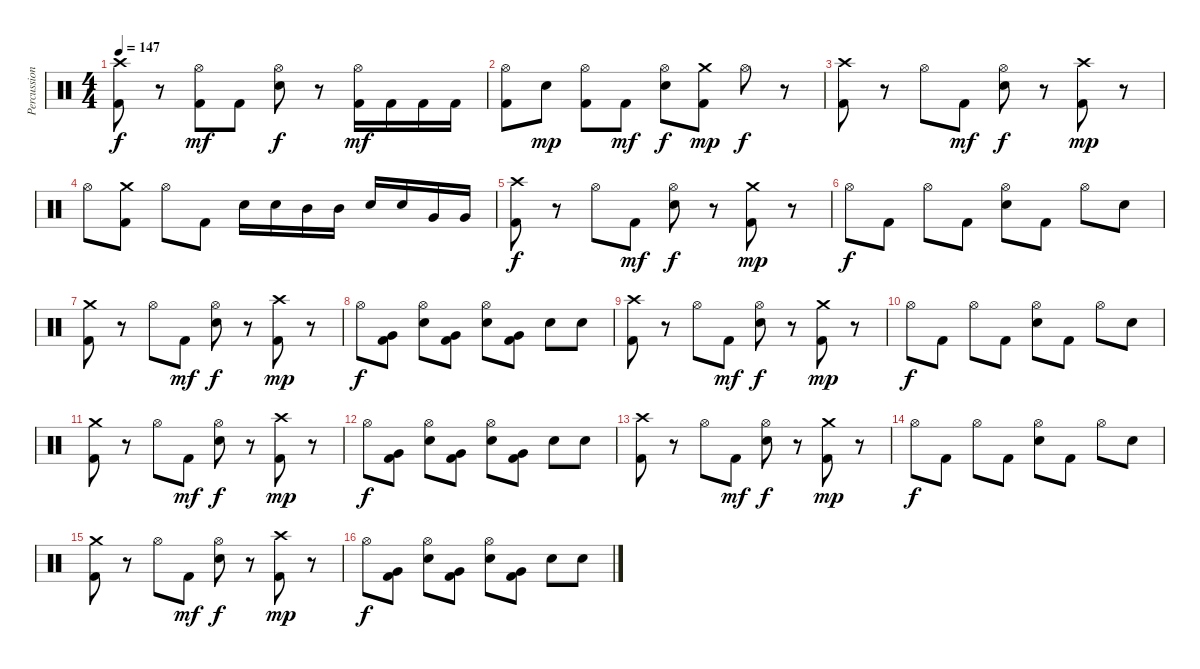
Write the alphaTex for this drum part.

\track ("Percussion" "Percussion") {instrument percussion}
\staff {score}
\articulation defaults
\ts (4 4)
\tempo 147
\clef neutral
\ks c
("Kick (hit) 2" "Crash high (hit)").8{dy f} r.8 ("Kick (hit) 2" "Hi-Hat (open)").8{dy mf} "Kick (hit) 2".8 ("Electric Snare (hit)" "Hi-Hat (open)").8{dy f} r.8 ("Kick (hit) 2" "Hi-Hat (open)").16{dy mf} "Kick (hit) 2".16 "Kick (hit) 2".16 "Kick (hit) 2".16 |
("Kick (hit) 2" "Hi-Hat (open)").8 "Electric Snare (hit)".8{dy mp} ("Kick (hit) 2" "Hi-Hat (open)").8 "Kick (hit) 2".8{dy mf} ("Electric Snare (hit)" "Hi-Hat (open)").8{dy f} ("Kick (hit) 2" "Crash medium (hit)").8{dy mp} "Hi-Hat (open)".8{dy f} r.8 |
("Kick (hit) 2" "Crash high (hit)").8 r.8 "Hi-Hat (open)".8 "Kick (hit) 2".8{dy mf} ("Electric Snare (hit)" "Hi-Hat (open)").8{dy f} r.8 ("Kick (hit) 2" "Crash high (hit)").8{dy mp} r.8 |
"Hi-Hat (open)".8 ("Kick (hit) 2" "Crash medium (hit)").8 "Hi-Hat (open)".8 "Kick (hit) 2".8 "Electric Snare (hit)".16 "Electric Snare (hit)".16 "Mid Tom (hit)".16 "Mid Tom (hit)".16 "Electric Snare (hit)".16 "Electric Snare (hit)".16 "Very Low Tom (hit)".16 "Very Low Tom (hit)".16 |
("Kick (hit) 2" "Crash high (hit)").8{dy f} r.8 "Hi-Hat (open)".8 "Kick (hit) 2".8{dy mf} ("Electric Snare (hit)" "Hi-Hat (open)").8{dy f} r.8 ("Kick (hit) 2" "Crash medium (hit)").8{dy mp} r.8 |
"Hi-Hat (open)".8{dy f} "Kick (hit) 2".8 "Hi-Hat (open)".8 "Kick (hit) 2".8 ("Electric Snare (hit)" "Hi-Hat (open)").8 "Kick (hit) 2".8 "Hi-Hat (open)".8 "Electric Snare (hit)".8 |
("Kick (hit) 2" "Crash medium (hit)").8 r.8 "Hi-Hat (open)".8 "Kick (hit) 2".8{dy mf} ("Electric Snare (hit)" "Hi-Hat (open)").8{dy f} r.8 ("Kick (hit) 2" "Crash high (hit)").8{dy mp} r.8 |
"Hi-Hat (open)".8{dy f} ("Kick (hit) 2" "Very Low Tom (hit)").8 ("Electric Snare (hit)" "Hi-Hat (open)").8 ("Kick (hit) 2" "Very Low Tom (hit)").8 ("Electric Snare (hit)" "Hi-Hat (open)").8 ("Kick (hit) 2" "Very Low Tom (hit)").8 "Electric Snare (hit)".8 "Electric Snare (hit)".8 |
("Kick (hit) 2" "Crash high (hit)").8 r.8 "Hi-Hat (open)".8 "Kick (hit) 2".8{dy mf} ("Electric Snare (hit)" "Hi-Hat (open)").8{dy f} r.8 ("Kick (hit) 2" "Crash medium (hit)").8{dy mp} r.8 |
"Hi-Hat (open)".8{dy f} "Kick (hit) 2".8 "Hi-Hat (open)".8 "Kick (hit) 2".8 ("Electric Snare (hit)" "Hi-Hat (open)").8 "Kick (hit) 2".8 "Hi-Hat (open)".8 "Electric Snare (hit)".8 |
("Kick (hit) 2" "Crash medium (hit)").8 r.8 "Hi-Hat (open)".8 "Kick (hit) 2".8{dy mf} ("Electric Snare (hit)" "Hi-Hat (open)").8{dy f} r.8 ("Kick (hit) 2" "Crash high (hit)").8{dy mp} r.8 |
"Hi-Hat (open)".8{dy f} ("Kick (hit) 2" "Very Low Tom (hit)").8 ("Electric Snare (hit)" "Hi-Hat (open)").8 ("Kick (hit) 2" "Very Low Tom (hit)").8 ("Electric Snare (hit)" "Hi-Hat (open)").8 ("Kick (hit) 2" "Very Low Tom (hit)").8 "Electric Snare (hit)".8 "Electric Snare (hit)".8 |
("Kick (hit) 2" "Crash high (hit)").8 r.8 "Hi-Hat (open)".8 "Kick (hit) 2".8{dy mf} ("Electric Snare (hit)" "Hi-Hat (open)").8{dy f} r.8 ("Kick (hit) 2" "Crash medium (hit)").8{dy mp} r.8 |
"Hi-Hat (open)".8{dy f} "Kick (hit) 2".8 "Hi-Hat (open)".8 "Kick (hit) 2".8 ("Electric Snare (hit)" "Hi-Hat (open)").8 "Kick (hit) 2".8 "Hi-Hat (open)".8 "Electric Snare (hit)".8 |
("Kick (hit) 2" "Crash medium (hit)").8 r.8 "Hi-Hat (open)".8 "Kick (hit) 2".8{dy mf} ("Electric Snare (hit)" "Hi-Hat (open)").8{dy f} r.8 ("Kick (hit) 2" "Crash high (hit)").8{dy mp} r.8 |
"Hi-Hat (open)".8{dy f} ("Kick (hit) 2" "Very Low Tom (hit)").8 ("Electric Snare (hit)" "Hi-Hat (open)").8 ("Kick (hit) 2" "Very Low Tom (hit)").8 ("Electric Snare (hit)" "Hi-Hat (open)").8 ("Kick (hit) 2" "Very Low Tom (hit)").8 "Electric Snare (hit)".8 "Electric Snare (hit)".8
